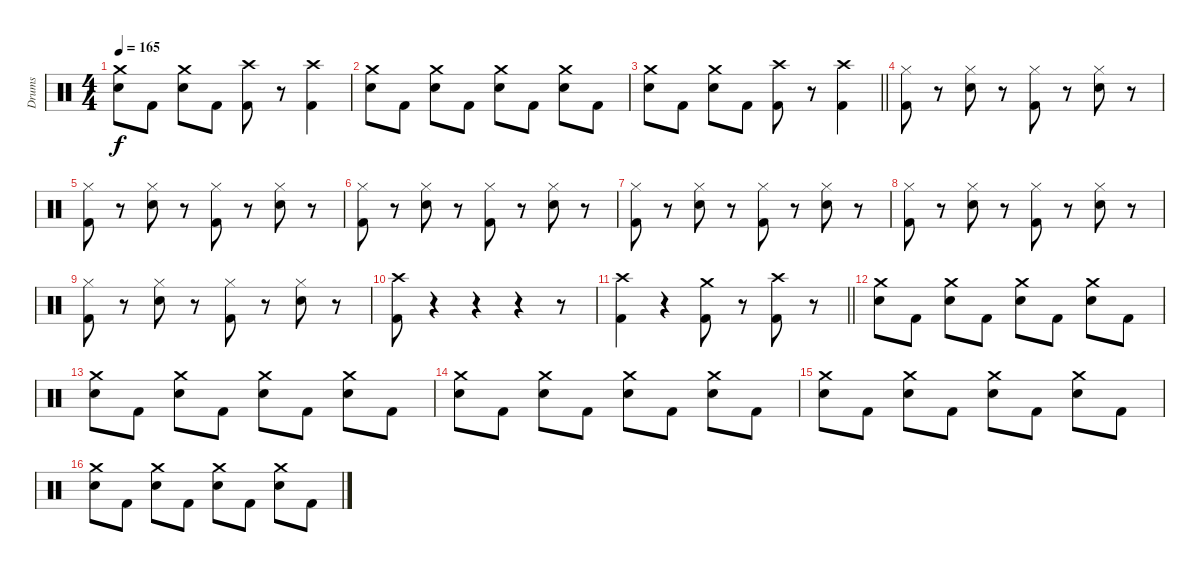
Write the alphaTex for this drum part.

\track ("Drums" "Drums") {instrument percussion}
\staff {score}
\articulation defaults
\ts (4 4)
\tempo 165
\clef neutral
\ks c
("Crash medium (hit)" "Electric Snare (hit)").8{dy f} "Kick (hit) 2".8 ("Crash medium (hit)" "Electric Snare (hit)").8 "Kick (hit) 2".8 ("Crash high (hit)" "Kick (hit) 2").8 r.8 ("Crash high (hit)" "Kick (hit) 2").4 |
("Crash medium (hit)" "Electric Snare (hit)").8 "Kick (hit) 2".8 ("Crash medium (hit)" "Electric Snare (hit)").8 "Kick (hit) 2".8 ("Crash medium (hit)" "Electric Snare (hit)").8 "Kick (hit) 2".8 ("Crash medium (hit)" "Electric Snare (hit)").8 "Kick (hit) 2".8 |
\barLineRight lightlight
("Crash medium (hit)" "Electric Snare (hit)").8 "Kick (hit) 2".8 ("Crash medium (hit)" "Electric Snare (hit)").8 "Kick (hit) 2".8 ("Crash high (hit)" "Kick (hit) 2").8 r.8 ("Crash high (hit)" "Kick (hit) 2").4 |
\section ("" "")
("Hi-Hat (closed)" "Kick (hit) 2").8 r.8 ("Hi-Hat (closed)" "Electric Snare (hit)").8 r.8 ("Hi-Hat (closed)" "Kick (hit) 2").8 r.8 ("Hi-Hat (closed)" "Electric Snare (hit)").8 r.8 |
("Hi-Hat (closed)" "Kick (hit) 2").8 r.8 ("Hi-Hat (closed)" "Electric Snare (hit)").8 r.8 ("Hi-Hat (closed)" "Kick (hit) 2").8 r.8 ("Hi-Hat (closed)" "Electric Snare (hit)").8 r.8 |
("Hi-Hat (closed)" "Kick (hit) 2").8 r.8 ("Hi-Hat (closed)" "Electric Snare (hit)").8 r.8 ("Hi-Hat (closed)" "Kick (hit) 2").8 r.8 ("Hi-Hat (closed)" "Electric Snare (hit)").8 r.8 |
("Hi-Hat (closed)" "Kick (hit) 2").8 r.8 ("Hi-Hat (closed)" "Electric Snare (hit)").8 r.8 ("Hi-Hat (closed)" "Kick (hit) 2").8 r.8 ("Hi-Hat (closed)" "Electric Snare (hit)").8 r.8 |
("Hi-Hat (closed)" "Kick (hit) 2").8 r.8 ("Hi-Hat (closed)" "Electric Snare (hit)").8 r.8 ("Hi-Hat (closed)" "Kick (hit) 2").8 r.8 ("Hi-Hat (closed)" "Electric Snare (hit)").8 r.8 |
("Hi-Hat (closed)" "Kick (hit) 2").8 r.8 ("Hi-Hat (closed)" "Electric Snare (hit)").8 r.8 ("Hi-Hat (closed)" "Kick (hit) 2").8 r.8 ("Hi-Hat (closed)" "Electric Snare (hit)").8 r.8 |
("Crash high (hit)" "Kick (hit) 2").8 r.4 r.4 r.4 r.8 |
\barLineRight lightlight
("Crash high (hit)" "Kick (hit) 2").4 r.4 ("Crash medium (hit)" "Kick (hit) 2").8 r.8 ("Crash high (hit)" "Kick (hit) 2").8 r.8 |
\section ("" "")
("Crash medium (hit)" "Electric Snare (hit)").8 "Kick (hit) 2".8 ("Crash medium (hit)" "Electric Snare (hit)").8 "Kick (hit) 2".8 ("Crash medium (hit)" "Electric Snare (hit)").8 "Kick (hit) 2".8 ("Crash medium (hit)" "Electric Snare (hit)").8 "Kick (hit) 2".8 |
("Crash medium (hit)" "Electric Snare (hit)").8 "Kick (hit) 2".8 ("Crash medium (hit)" "Electric Snare (hit)").8 "Kick (hit) 2".8 ("Crash medium (hit)" "Electric Snare (hit)").8 "Kick (hit) 2".8 ("Crash medium (hit)" "Electric Snare (hit)").8 "Kick (hit) 2".8 |
("Crash medium (hit)" "Electric Snare (hit)").8 "Kick (hit) 2".8 ("Crash medium (hit)" "Electric Snare (hit)").8 "Kick (hit) 2".8 ("Crash medium (hit)" "Electric Snare (hit)").8 "Kick (hit) 2".8 ("Crash medium (hit)" "Electric Snare (hit)").8 "Kick (hit) 2".8 |
("Crash medium (hit)" "Electric Snare (hit)").8 "Kick (hit) 2".8 ("Crash medium (hit)" "Electric Snare (hit)").8 "Kick (hit) 2".8 ("Crash medium (hit)" "Electric Snare (hit)").8 "Kick (hit) 2".8 ("Crash medium (hit)" "Electric Snare (hit)").8 "Kick (hit) 2".8 |
("Crash medium (hit)" "Electric Snare (hit)").8 "Kick (hit) 2".8 ("Crash medium (hit)" "Electric Snare (hit)").8 "Kick (hit) 2".8 ("Crash medium (hit)" "Electric Snare (hit)").8 "Kick (hit) 2".8 ("Crash medium (hit)" "Electric Snare (hit)").8 "Kick (hit) 2".8
